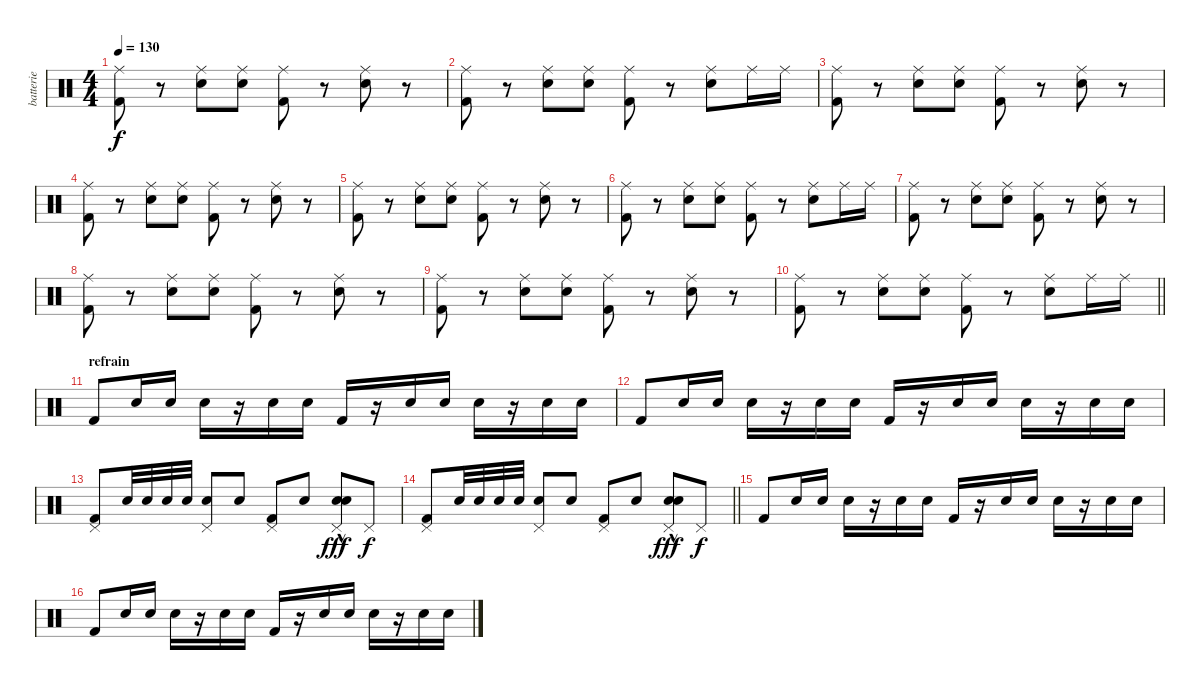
\track ("batterie" "batterie") {instrument percussion}
\staff {score}
\articulation defaults
\ts (4 4)
\tempo 130
\clef neutral
\ks c
("Ride (middle)" "Kick (hit) 2").8{dy f} r.8 ("Ride (middle)" "Snare (hit) 2").8 ("Ride (middle)" "Snare (hit) 2").8 ("Ride (middle)" "Kick (hit) 2").8 r.8 ("Ride (middle)" "Snare (hit) 2").8 r.8 |
("Ride (middle)" "Kick (hit) 2").8 r.8 ("Ride (middle)" "Snare (hit) 2").8 ("Ride (middle)" "Snare (hit) 2").8 ("Ride (middle)" "Kick (hit) 2").8 r.8 ("Ride (middle)" "Snare (hit) 2").8 "Ride (middle)".16 "Ride (middle)".16 |
("Ride (middle)" "Kick (hit) 2").8 r.8 ("Ride (middle)" "Snare (hit) 2").8 ("Ride (middle)" "Snare (hit) 2").8 ("Ride (middle)" "Kick (hit) 2").8 r.8 ("Ride (middle)" "Snare (hit) 2").8 r.8 |
("Ride (middle)" "Kick (hit) 2").8 r.8 ("Ride (middle)" "Snare (hit) 2").8 ("Ride (middle)" "Snare (hit) 2").8 ("Ride (middle)" "Kick (hit) 2").8 r.8 ("Ride (middle)" "Snare (hit) 2").8 r.8 |
("Ride (middle)" "Kick (hit) 2").8 r.8 ("Ride (middle)" "Snare (hit) 2").8 ("Ride (middle)" "Snare (hit) 2").8 ("Ride (middle)" "Kick (hit) 2").8 r.8 ("Ride (middle)" "Snare (hit) 2").8 r.8 |
("Ride (middle)" "Kick (hit) 2").8 r.8 ("Ride (middle)" "Snare (hit) 2").8 ("Ride (middle)" "Snare (hit) 2").8 ("Ride (middle)" "Kick (hit) 2").8 r.8 ("Ride (middle)" "Snare (hit) 2").8 "Ride (middle)".16 "Ride (middle)".16 |
("Ride (middle)" "Kick (hit) 2").8 r.8 ("Ride (middle)" "Snare (hit) 2").8 ("Ride (middle)" "Snare (hit) 2").8 ("Ride (middle)" "Kick (hit) 2").8 r.8 ("Ride (middle)" "Snare (hit) 2").8 r.8 |
("Ride (middle)" "Kick (hit) 2").8 r.8 ("Ride (middle)" "Snare (hit) 2").8 ("Ride (middle)" "Snare (hit) 2").8 ("Ride (middle)" "Kick (hit) 2").8 r.8 ("Ride (middle)" "Snare (hit) 2").8 r.8 |
("Ride (middle)" "Kick (hit) 2").8 r.8 ("Ride (middle)" "Snare (hit) 2").8 ("Ride (middle)" "Snare (hit) 2").8 ("Ride (middle)" "Kick (hit) 2").8 r.8 ("Ride (middle)" "Snare (hit) 2").8 r.8 |
\barLineRight lightlight
("Ride (middle)" "Kick (hit) 2").8 r.8 ("Ride (middle)" "Snare (hit) 2").8 ("Ride (middle)" "Snare (hit) 2").8 ("Ride (middle)" "Kick (hit) 2").8 r.8 ("Ride (middle)" "Snare (hit) 2").8 "Ride (middle)".16 "Ride (middle)".16 |
\section ("" "refrain")
"Kick (hit) 2".8 "Snare (hit) 2".16 "Snare (hit) 2".16 "Snare (hit) 2".16 r.16 "Snare (hit) 2".16 "Snare (hit) 2".16 "Kick (hit) 2".16 r.16 "Snare (hit) 2".16 "Snare (hit) 2".16 "Snare (hit) 2".16 r.16 "Snare (hit) 2".16 "Snare (hit) 2".16 |
"Kick (hit) 2".8 "Snare (hit) 2".16 "Snare (hit) 2".16 "Snare (hit) 2".16 r.16 "Snare (hit) 2".16 "Snare (hit) 2".16 "Kick (hit) 2".16 r.16 "Snare (hit) 2".16 "Snare (hit) 2".16 "Snare (hit) 2".16 r.16 "Snare (hit) 2".16 "Snare (hit) 2".16 |
("Pedal Hi-Hat (hit)" "Kick (hit) 2").8 "Snare (hit) 2".32 "Snare (hit) 2".32 "Snare (hit) 2".32 "Snare (hit) 2".32 ("Pedal Hi-Hat (hit)" "Snare (hit) 2").8 "Snare (hit) 2".8 ("Pedal Hi-Hat (hit)" "Kick (hit) 2").8 "Snare (hit) 2".8 ("Pedal Hi-Hat (hit)" "Snare (hit) 2"{hac} "Snare (hit) 2"{hac}).8{dy fff} "Pedal Hi-Hat (hit)".8{dy f} |
\barLineRight lightlight
("Pedal Hi-Hat (hit)" "Kick (hit) 2").8 "Snare (hit) 2".32 "Snare (hit) 2".32 "Snare (hit) 2".32 "Snare (hit) 2".32 ("Pedal Hi-Hat (hit)" "Snare (hit) 2").8 "Snare (hit) 2".8 ("Pedal Hi-Hat (hit)" "Kick (hit) 2").8 "Snare (hit) 2".8 ("Pedal Hi-Hat (hit)" "Snare (hit) 2"{hac} "Snare (hit) 2"{hac}).8{dy fff} "Pedal Hi-Hat (hit)".8{dy f} |
"Kick (hit) 2".8 "Snare (hit) 2".16 "Snare (hit) 2".16 "Snare (hit) 2".16 r.16 "Snare (hit) 2".16 "Snare (hit) 2".16 "Kick (hit) 2".16 r.16 "Snare (hit) 2".16 "Snare (hit) 2".16 "Snare (hit) 2".16 r.16 "Snare (hit) 2".16 "Snare (hit) 2".16 |
"Kick (hit) 2".8 "Snare (hit) 2".16 "Snare (hit) 2".16 "Snare (hit) 2".16 r.16 "Snare (hit) 2".16 "Snare (hit) 2".16 "Kick (hit) 2".16 r.16 "Snare (hit) 2".16 "Snare (hit) 2".16 "Snare (hit) 2".16 r.16 "Snare (hit) 2".16 "Snare (hit) 2".16
